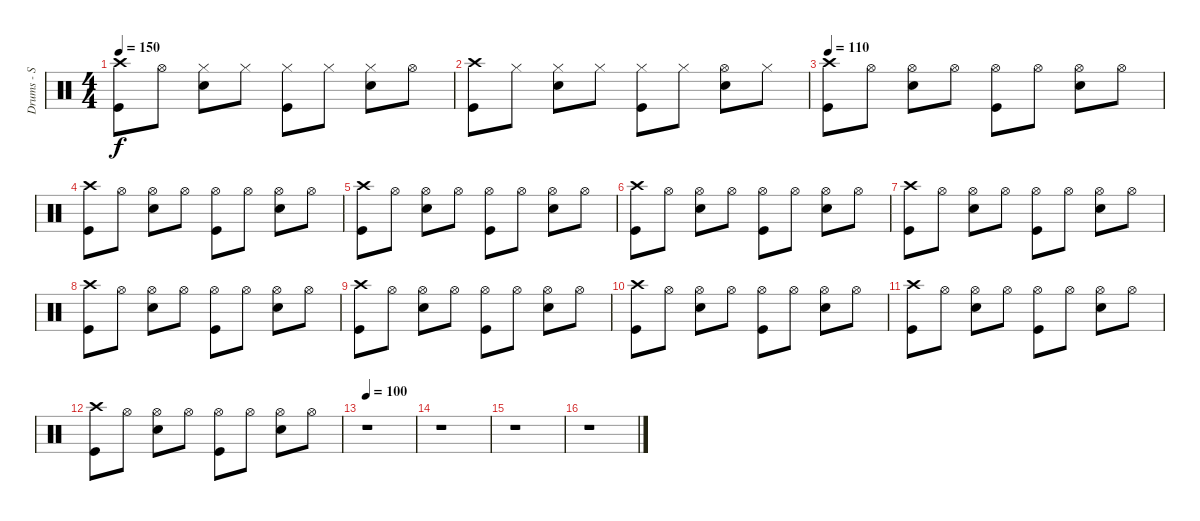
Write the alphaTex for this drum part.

\track ("Drums - S Man" "Drums - S ") {instrument percussion}
\staff {score}
\articulation defaults
\ts (4 4)
\tempo 150
\clef neutral
\ks c
("Crash high (hit)" "Kick (hit)").8{dy f} "Hi-Hat (open)".8 ("Hi-Hat (closed)" "Electric Snare (hit)").8 "Hi-Hat (closed)".8 ("Hi-Hat (closed)" "Kick (hit)").8 "Hi-Hat (closed)".8 ("Hi-Hat (closed)" "Electric Snare (hit)").8 "Hi-Hat (open)".8 |
("Crash high (hit)" "Kick (hit)").8 "Hi-Hat (closed)".8 ("Hi-Hat (closed)" "Electric Snare (hit)").8 "Hi-Hat (closed)".8 ("Hi-Hat (closed)" "Kick (hit)").8 "Hi-Hat (closed)".8 ("Hi-Hat (open)" "Electric Snare (hit)").8 "Hi-Hat (closed)".8 |
\tempo 110
("Crash high (hit)" "Kick (hit)").8 "Hi-Hat (open)".8 ("Hi-Hat (open)" "Electric Snare (hit)").8 "Hi-Hat (open)".8 ("Hi-Hat (open)" "Kick (hit)").8 "Hi-Hat (open)".8 ("Hi-Hat (open)" "Electric Snare (hit)").8 "Hi-Hat (open)".8 |
("Crash high (hit)" "Kick (hit)").8 "Hi-Hat (open)".8 ("Hi-Hat (open)" "Electric Snare (hit)").8 "Hi-Hat (open)".8 ("Hi-Hat (open)" "Kick (hit)").8 "Hi-Hat (open)".8 ("Hi-Hat (open)" "Electric Snare (hit)").8 "Hi-Hat (open)".8 |
("Crash high (hit)" "Kick (hit)").8 "Hi-Hat (open)".8 ("Hi-Hat (open)" "Electric Snare (hit)").8 "Hi-Hat (open)".8 ("Hi-Hat (open)" "Kick (hit)").8 "Hi-Hat (open)".8 ("Hi-Hat (open)" "Electric Snare (hit)").8 "Hi-Hat (open)".8 |
("Crash high (hit)" "Kick (hit)").8 "Hi-Hat (open)".8 ("Hi-Hat (open)" "Electric Snare (hit)").8 "Hi-Hat (open)".8 ("Hi-Hat (open)" "Kick (hit)").8 "Hi-Hat (open)".8 ("Hi-Hat (open)" "Electric Snare (hit)").8 "Hi-Hat (open)".8 |
("Crash high (hit)" "Kick (hit)").8 "Hi-Hat (open)".8 ("Hi-Hat (open)" "Electric Snare (hit)").8 "Hi-Hat (open)".8 ("Hi-Hat (open)" "Kick (hit)").8 "Hi-Hat (open)".8 ("Hi-Hat (open)" "Electric Snare (hit)").8 "Hi-Hat (open)".8 |
("Crash high (hit)" "Kick (hit)").8 "Hi-Hat (open)".8 ("Hi-Hat (open)" "Electric Snare (hit)").8 "Hi-Hat (open)".8 ("Hi-Hat (open)" "Kick (hit)").8 "Hi-Hat (open)".8 ("Hi-Hat (open)" "Electric Snare (hit)").8 "Hi-Hat (open)".8 |
("Crash high (hit)" "Kick (hit)").8 "Hi-Hat (open)".8 ("Hi-Hat (open)" "Electric Snare (hit)").8 "Hi-Hat (open)".8 ("Hi-Hat (open)" "Kick (hit)").8 "Hi-Hat (open)".8 ("Hi-Hat (open)" "Electric Snare (hit)").8 "Hi-Hat (open)".8 |
("Crash high (hit)" "Kick (hit)").8 "Hi-Hat (open)".8 ("Hi-Hat (open)" "Electric Snare (hit)").8 "Hi-Hat (open)".8 ("Hi-Hat (open)" "Kick (hit)").8 "Hi-Hat (open)".8 ("Hi-Hat (open)" "Electric Snare (hit)").8 "Hi-Hat (open)".8 |
("Crash high (hit)" "Kick (hit)").8 "Hi-Hat (open)".8 ("Hi-Hat (open)" "Electric Snare (hit)").8 "Hi-Hat (open)".8 ("Hi-Hat (open)" "Kick (hit)").8 "Hi-Hat (open)".8 ("Hi-Hat (open)" "Electric Snare (hit)").8 "Hi-Hat (open)".8 |
("Crash high (hit)" "Kick (hit)").8 "Hi-Hat (open)".8 ("Hi-Hat (open)" "Electric Snare (hit)").8 "Hi-Hat (open)".8 ("Hi-Hat (open)" "Kick (hit)").8 "Hi-Hat (open)".8 ("Hi-Hat (open)" "Electric Snare (hit)").8 "Hi-Hat (open)".8 |
\tempo 100
r.1 |
r.1 |
r.1 |
r.1
